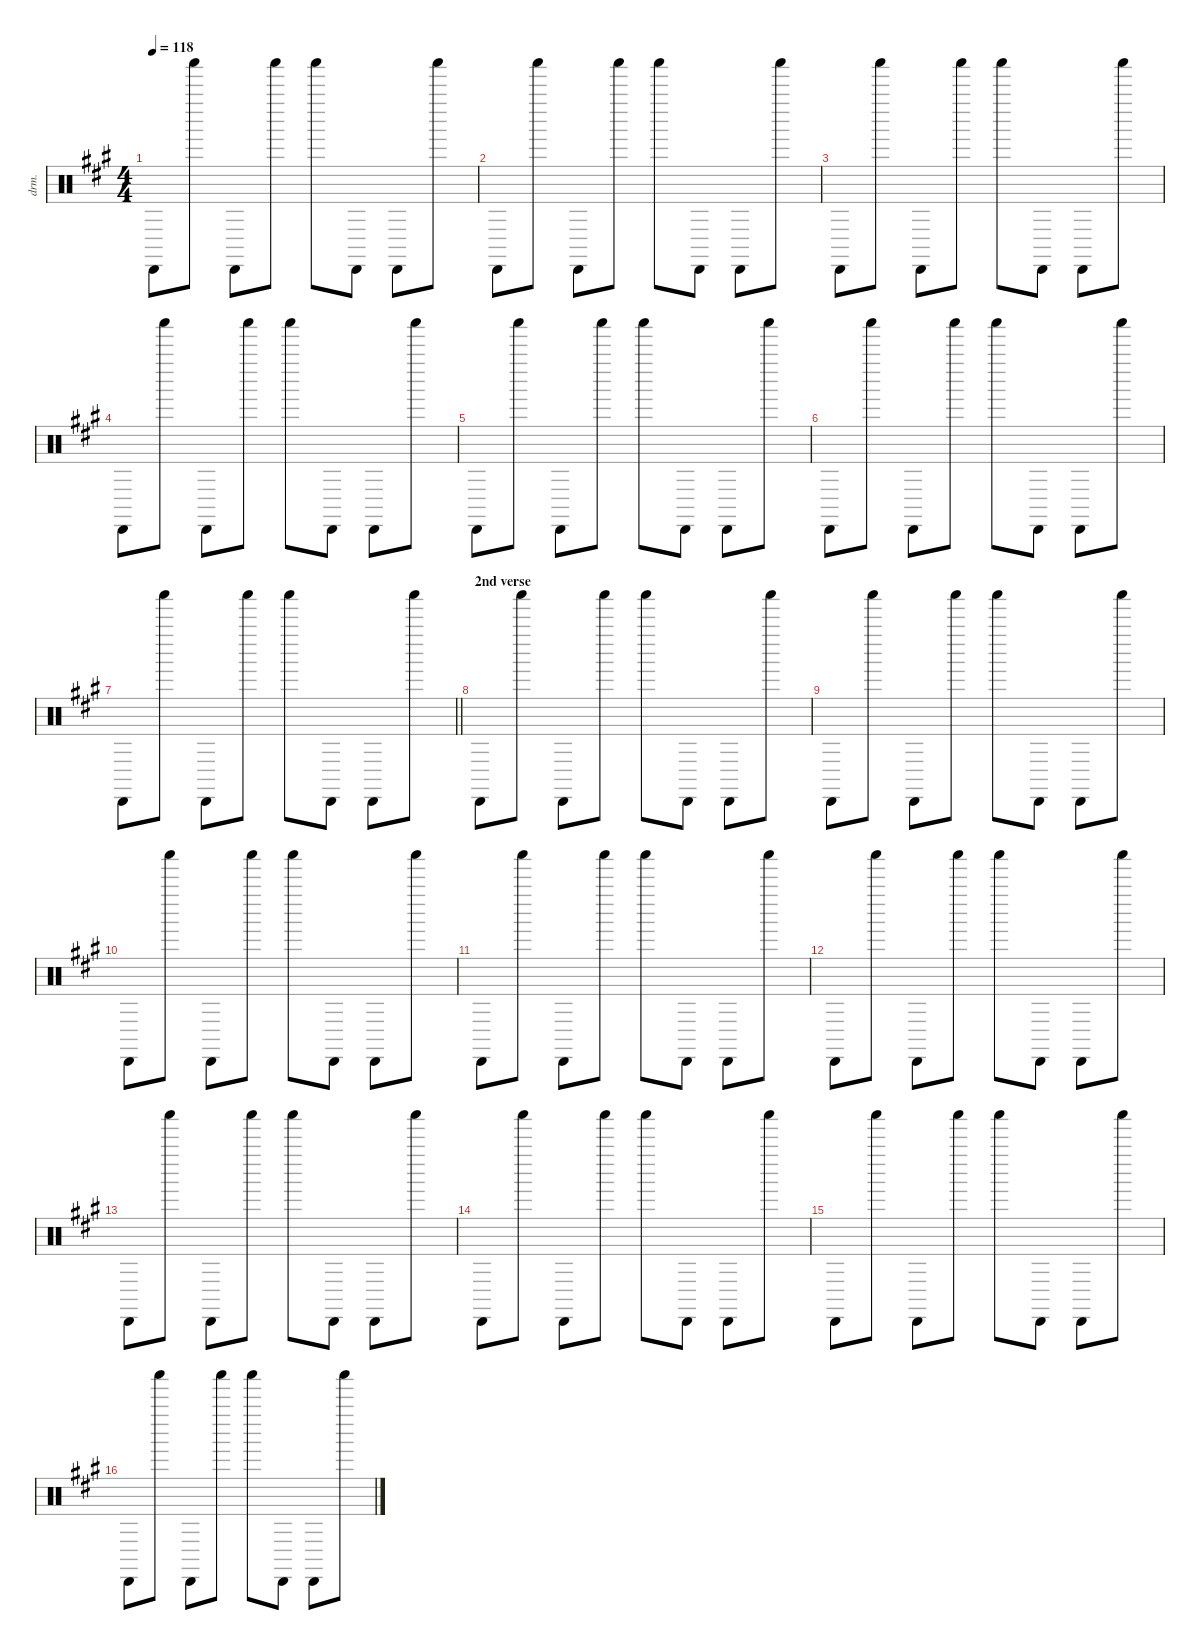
\defaultSystemsLayout 4
\hideDynamics
\bracketExtendMode nobrackets
\otherSystemsTrackNameOrientation horizontal
\track ("shaker" "drm.") {instrument percussion}
\staff {score}
\articulation defaults
\ts (4 4)
\tempo 118
\clef neutral
\ks f#minor "Cabasa (hit)"{acc forcenatural}.8{dy f} "Shaker (hit)"{acc forcenatural}.8 "Cabasa (hit)"{acc forcenatural}.8{dy mp} "Shaker (hit)"{acc forcenatural}.8{dy f} "Shaker (hit)"{acc forcenatural}.8{dy p} "Cabasa (hit)"{acc forcenatural}.8{dy f} "Cabasa (hit)"{acc forcenatural}.8 "Shaker (hit)"{acc forcenatural}.8
|
"Cabasa (hit)"{acc forcenatural}.8 "Shaker (hit)"{acc forcenatural}.8 "Cabasa (hit)"{acc forcenatural}.8{dy mp} "Shaker (hit)"{acc forcenatural}.8{dy f} "Shaker (hit)"{acc forcenatural}.8{dy p} "Cabasa (hit)"{acc forcenatural}.8{dy f} "Cabasa (hit)"{acc forcenatural}.8 "Shaker (hit)"{acc forcenatural}.8 |
"Cabasa (hit)"{acc forcenatural}.8 "Shaker (hit)"{acc forcenatural}.8 "Cabasa (hit)"{acc forcenatural}.8{dy mp} "Shaker (hit)"{acc forcenatural}.8{dy f} "Shaker (hit)"{acc forcenatural}.8{dy p} "Cabasa (hit)"{acc forcenatural}.8{dy f} "Cabasa (hit)"{acc forcenatural}.8 "Shaker (hit)"{acc forcenatural}.8 |
"Cabasa (hit)"{acc forcenatural}.8 "Shaker (hit)"{acc forcenatural}.8 "Cabasa (hit)"{acc forcenatural}.8{dy mp} "Shaker (hit)"{acc forcenatural}.8{dy f} "Shaker (hit)"{acc forcenatural}.8{dy p} "Cabasa (hit)"{acc forcenatural}.8{dy f} "Cabasa (hit)"{acc forcenatural}.8 "Shaker (hit)"{acc forcenatural}.8 |
"Cabasa (hit)"{acc forcenatural}.8 "Shaker (hit)"{acc forcenatural}.8 "Cabasa (hit)"{acc forcenatural}.8{dy mp} "Shaker (hit)"{acc forcenatural}.8{dy f} "Shaker (hit)"{acc forcenatural}.8{dy p} "Cabasa (hit)"{acc forcenatural}.8{dy f} "Cabasa (hit)"{acc forcenatural}.8 "Shaker (hit)"{acc forcenatural}.8 |
"Cabasa (hit)"{acc forcenatural}.8 "Shaker (hit)"{acc forcenatural}.8 "Cabasa (hit)"{acc forcenatural}.8{dy mp} "Shaker (hit)"{acc forcenatural}.8{dy f} "Shaker (hit)"{acc forcenatural}.8{dy p} "Cabasa (hit)"{acc forcenatural}.8{dy f} "Cabasa (hit)"{acc forcenatural}.8 "Shaker (hit)"{acc forcenatural}.8 |
\barLineRight lightlight "Cabasa (hit)"{acc forcenatural}.8 "Shaker (hit)"{acc forcenatural}.8 "Cabasa (hit)"{acc forcenatural}.8{dy mp} "Shaker (hit)"{acc forcenatural}.8{dy f} "Shaker (hit)"{acc forcenatural}.8{dy p} "Cabasa (hit)"{acc forcenatural}.8{dy f} "Cabasa (hit)"{acc forcenatural}.8 "Shaker (hit)"{acc forcenatural}.8
|
\section ("" "2nd verse")
"Cabasa (hit)"{acc forcenatural}.8 "Shaker (hit)"{acc forcenatural}.8 "Cabasa (hit)"{acc forcenatural}.8{dy mp} "Shaker (hit)"{acc forcenatural}.8{dy f} "Shaker (hit)"{acc forcenatural}.8{dy p} "Cabasa (hit)"{acc forcenatural}.8{dy f} "Cabasa (hit)"{acc forcenatural}.8 "Shaker (hit)"{acc forcenatural}.8 |
"Cabasa (hit)"{acc forcenatural}.8 "Shaker (hit)"{acc forcenatural}.8 "Cabasa (hit)"{acc forcenatural}.8{dy mp} "Shaker (hit)"{acc forcenatural}.8{dy f} "Shaker (hit)"{acc forcenatural}.8{dy p} "Cabasa (hit)"{acc forcenatural}.8{dy f} "Cabasa (hit)"{acc forcenatural}.8 "Shaker (hit)"{acc forcenatural}.8 |
"Cabasa (hit)"{acc forcenatural}.8 "Shaker (hit)"{acc forcenatural}.8 "Cabasa (hit)"{acc forcenatural}.8{dy mp} "Shaker (hit)"{acc forcenatural}.8{dy f} "Shaker (hit)"{acc forcenatural}.8{dy p} "Cabasa (hit)"{acc forcenatural}.8{dy f} "Cabasa (hit)"{acc forcenatural}.8 "Shaker (hit)"{acc forcenatural}.8 |
"Cabasa (hit)"{acc forcenatural}.8 "Shaker (hit)"{acc forcenatural}.8 "Cabasa (hit)"{acc forcenatural}.8{dy mp} "Shaker (hit)"{acc forcenatural}.8{dy f} "Shaker (hit)"{acc forcenatural}.8{dy p} "Cabasa (hit)"{acc forcenatural}.8{dy f} "Cabasa (hit)"{acc forcenatural}.8 "Shaker (hit)"{acc forcenatural}.8 |
"Cabasa (hit)"{acc forcenatural}.8 "Shaker (hit)"{acc forcenatural}.8 "Cabasa (hit)"{acc forcenatural}.8{dy mp} "Shaker (hit)"{acc forcenatural}.8{dy f} "Shaker (hit)"{acc forcenatural}.8{dy p} "Cabasa (hit)"{acc forcenatural}.8{dy f} "Cabasa (hit)"{acc forcenatural}.8 "Shaker (hit)"{acc forcenatural}.8 |
"Cabasa (hit)"{acc forcenatural}.8 "Shaker (hit)"{acc forcenatural}.8 "Cabasa (hit)"{acc forcenatural}.8{dy mp} "Shaker (hit)"{acc forcenatural}.8{dy f} "Shaker (hit)"{acc forcenatural}.8{dy p} "Cabasa (hit)"{acc forcenatural}.8{dy f} "Cabasa (hit)"{acc forcenatural}.8 "Shaker (hit)"{acc forcenatural}.8 |
"Cabasa (hit)"{acc forcenatural}.8 "Shaker (hit)"{acc forcenatural}.8 "Cabasa (hit)"{acc forcenatural}.8{dy mp} "Shaker (hit)"{acc forcenatural}.8{dy f} "Shaker (hit)"{acc forcenatural}.8{dy p} "Cabasa (hit)"{acc forcenatural}.8{dy f} "Cabasa (hit)"{acc forcenatural}.8 "Shaker (hit)"{acc forcenatural}.8 |
"Cabasa (hit)"{acc forcenatural}.8 "Shaker (hit)"{acc forcenatural}.8 "Cabasa (hit)"{acc forcenatural}.8{dy mp} "Shaker (hit)"{acc forcenatural}.8{dy f} "Shaker (hit)"{acc forcenatural}.8{dy p} "Cabasa (hit)"{acc forcenatural}.8{dy f} "Cabasa (hit)"{acc forcenatural}.8 "Shaker (hit)"{acc forcenatural}.8 |
"Cabasa (hit)"{acc forcenatural}.8 "Shaker (hit)"{acc forcenatural}.8 "Cabasa (hit)"{acc forcenatural}.8{dy mp} "Shaker (hit)"{acc forcenatural}.8{dy f} "Shaker (hit)"{acc forcenatural}.8{dy p} "Cabasa (hit)"{acc forcenatural}.8{dy f} "Cabasa (hit)"{acc forcenatural}.8 "Shaker (hit)"{acc forcenatural}.8
